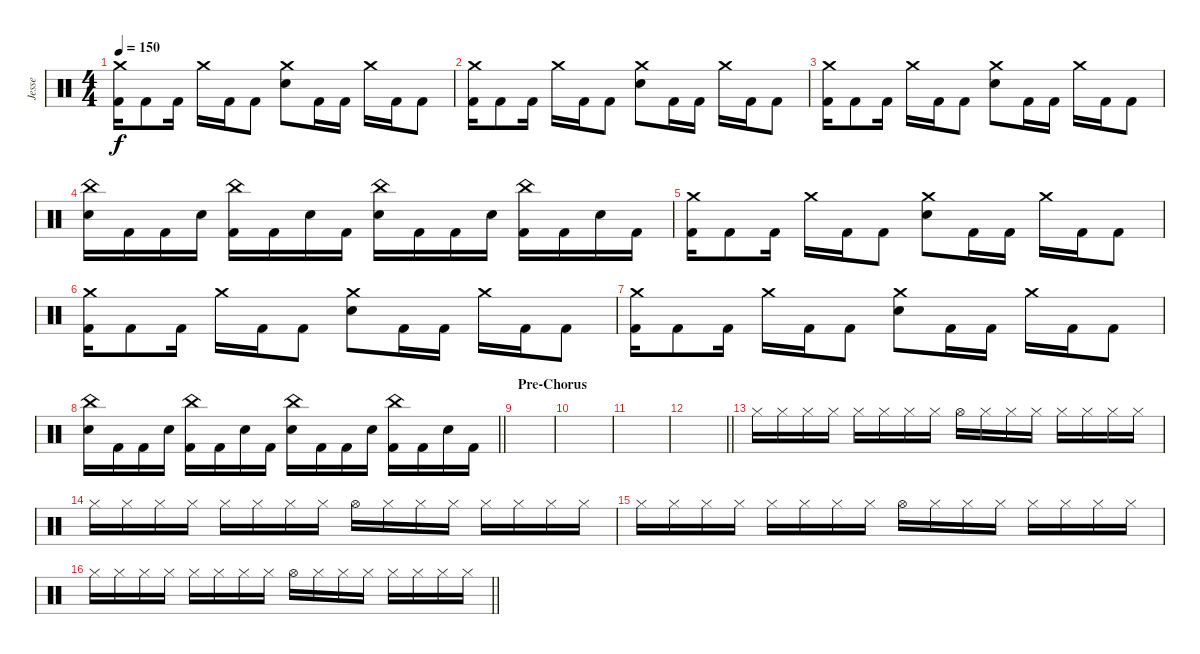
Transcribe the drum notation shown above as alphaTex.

\track ("Jesse" "Jesse") {instrument percussion}
\staff {score}
\articulation defaults
\ts (4 4)
\tempo 150
\clef neutral
\ks c
("Crash medium (hit)" "Kick (hit) 2").16{dy f} "Kick (hit) 2".8 "Kick (hit) 2".16 "Crash medium (hit)".16 "Kick (hit) 2".16 "Kick (hit) 2".8 ("Crash medium (hit)" "Electric Snare (hit)").8 "Kick (hit) 2".16 "Kick (hit) 2".16 "Crash medium (hit)".16 "Kick (hit) 2".16 "Kick (hit) 2".8 |
("Crash medium (hit)" "Kick (hit) 2").16 "Kick (hit) 2".8 "Kick (hit) 2".16 "Crash medium (hit)".16 "Kick (hit) 2".16 "Kick (hit) 2".8 ("Crash medium (hit)" "Electric Snare (hit)").8 "Kick (hit) 2".16 "Kick (hit) 2".16 "Crash medium (hit)".16 "Kick (hit) 2".16 "Kick (hit) 2".8 |
("Crash medium (hit)" "Kick (hit) 2").16 "Kick (hit) 2".8 "Kick (hit) 2".16 "Crash medium (hit)".16 "Kick (hit) 2".16 "Kick (hit) 2".8 ("Crash medium (hit)" "Electric Snare (hit)").8 "Kick (hit) 2".16 "Kick (hit) 2".16 "Crash medium (hit)".16 "Kick (hit) 2".16 "Kick (hit) 2".8 |
("China (hit)" "Electric Snare (hit)").16 "Kick (hit) 2".16 "Kick (hit) 2".16 "Electric Snare (hit)".16 ("China (hit)" "Kick (hit) 2").16 "Kick (hit) 2".16 "Electric Snare (hit)".16 "Kick (hit) 2".16 ("China (hit)" "Electric Snare (hit)").16 "Kick (hit) 2".16 "Kick (hit) 2".16 "Electric Snare (hit)".16 ("China (hit)" "Kick (hit) 2").16 "Kick (hit) 2".16 "Electric Snare (hit)".16 "Kick (hit) 2".16 |
("Crash medium (hit)" "Kick (hit) 2").16 "Kick (hit) 2".8 "Kick (hit) 2".16 "Crash medium (hit)".16 "Kick (hit) 2".16 "Kick (hit) 2".8 ("Crash medium (hit)" "Electric Snare (hit)").8 "Kick (hit) 2".16 "Kick (hit) 2".16 "Crash medium (hit)".16 "Kick (hit) 2".16 "Kick (hit) 2".8 |
("Crash medium (hit)" "Kick (hit) 2").16 "Kick (hit) 2".8 "Kick (hit) 2".16 "Crash medium (hit)".16 "Kick (hit) 2".16 "Kick (hit) 2".8 ("Crash medium (hit)" "Electric Snare (hit)").8 "Kick (hit) 2".16 "Kick (hit) 2".16 "Crash medium (hit)".16 "Kick (hit) 2".16 "Kick (hit) 2".8 |
("Crash medium (hit)" "Kick (hit) 2").16 "Kick (hit) 2".8 "Kick (hit) 2".16 "Crash medium (hit)".16 "Kick (hit) 2".16 "Kick (hit) 2".8 ("Crash medium (hit)" "Electric Snare (hit)").8 "Kick (hit) 2".16 "Kick (hit) 2".16 "Crash medium (hit)".16 "Kick (hit) 2".16 "Kick (hit) 2".8 |
\barLineRight lightlight
("China (hit)" "Electric Snare (hit)").16 "Kick (hit) 2".16 "Kick (hit) 2".16 "Electric Snare (hit)".16 ("China (hit)" "Kick (hit) 2").16 "Kick (hit) 2".16 "Electric Snare (hit)".16 "Kick (hit) 2".16 ("China (hit)" "Electric Snare (hit)").16 "Kick (hit) 2".16 "Kick (hit) 2".16 "Electric Snare (hit)".16 ("China (hit)" "Kick (hit) 2").16 "Kick (hit) 2".16 "Electric Snare (hit)".16 "Kick (hit) 2".16 |
\section ("" "Pre-Chorus")
|
|
|
\barLineRight lightlight
|
"Hi-Hat (closed)".16 "Hi-Hat (closed)".16 "Hi-Hat (closed)".16 "Hi-Hat (closed)".16 "Hi-Hat (closed)".16 "Hi-Hat (closed)".16 "Hi-Hat (closed)".16 "Hi-Hat (closed)".16 "Hi-Hat (open)".16 "Hi-Hat (closed)".16 "Hi-Hat (closed)".16 "Hi-Hat (closed)".16 "Hi-Hat (closed)".16 "Hi-Hat (closed)".16 "Hi-Hat (closed)".16 "Hi-Hat (closed)".16 |
"Hi-Hat (closed)".16 "Hi-Hat (closed)".16 "Hi-Hat (closed)".16 "Hi-Hat (closed)".16 "Hi-Hat (closed)".16 "Hi-Hat (closed)".16 "Hi-Hat (closed)".16 "Hi-Hat (closed)".16 "Hi-Hat (open)".16 "Hi-Hat (closed)".16 "Hi-Hat (closed)".16 "Hi-Hat (closed)".16 "Hi-Hat (closed)".16 "Hi-Hat (closed)".16 "Hi-Hat (closed)".16 "Hi-Hat (closed)".16 |
"Hi-Hat (closed)".16 "Hi-Hat (closed)".16 "Hi-Hat (closed)".16 "Hi-Hat (closed)".16 "Hi-Hat (closed)".16 "Hi-Hat (closed)".16 "Hi-Hat (closed)".16 "Hi-Hat (closed)".16 "Hi-Hat (open)".16 "Hi-Hat (closed)".16 "Hi-Hat (closed)".16 "Hi-Hat (closed)".16 "Hi-Hat (closed)".16 "Hi-Hat (closed)".16 "Hi-Hat (closed)".16 "Hi-Hat (closed)".16 |
\barLineRight lightlight "Hi-Hat (closed)".16 "Hi-Hat (closed)".16 "Hi-Hat (closed)".16 "Hi-Hat (closed)".16 "Hi-Hat (closed)".16 "Hi-Hat (closed)".16 "Hi-Hat (closed)".16 "Hi-Hat (closed)".16 "Hi-Hat (open)".16 "Hi-Hat (closed)".16 "Hi-Hat (closed)".16 "Hi-Hat (closed)".16 "Hi-Hat (closed)".16 "Hi-Hat (closed)".16 "Hi-Hat (closed)".16 "Hi-Hat (closed)".16
